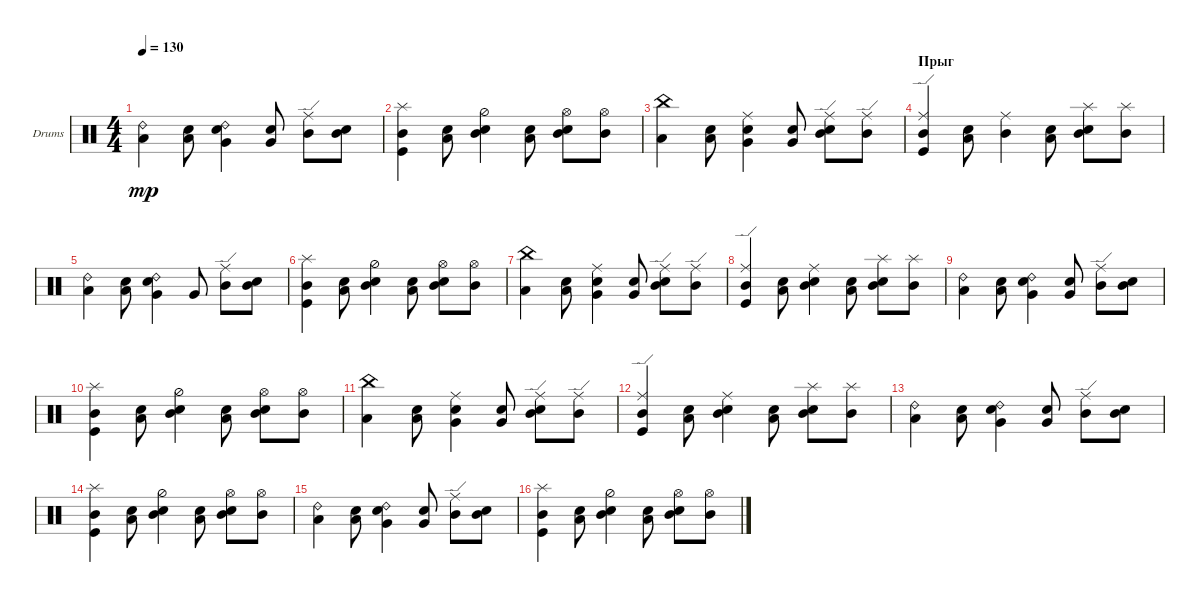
\defaultSystemsLayout 4
\bracketExtendMode groupsimilarinstruments
\firstSystemTrackNameOrientation horizontal
\otherSystemsTrackNameOrientation horizontal
\track ("Drumkit" "Drums") {instrument percussion}
\staff {score}
\articulation defaults
\ts (4 4)
\tempo 130
\clef neutral
\ks c
("Low Tom (hit)" "Ride (bell) 2").4{dy mp} ("Low Tom (hit)" "Snare (hit) 2").8 ("Very Low Tom (hit)" "Snare (hit) 2" "Ride (bell) 2").4 ("Very Low Tom (hit)" "Snare (hit) 2").8 ("Mid Tom (hit)" "Ride (edge)").8 ("Mid Tom (hit)" "Snare (hit) 2").8 |
("Mid Tom (hit)" "Kick (hit)" "Splash (hit)").4 ("Low Tom (hit)" "Snare (hit) 2").8 ("Mid Tom (hit)" "Snare (hit) 2" "Hi-Hat (half)").4 ("Low Tom (hit)" "Snare (hit) 2").8 ("Mid Tom (hit)" "Snare (hit) 2" "Hi-Hat (open)").8 ("Mid Tom (hit)" "Hi-Hat (open)").8 |
("Low Tom (hit)" "China (hit)").4 ("Low Tom (hit)" "Snare (hit) 2").8 ("Very Low Tom (hit)" "Snare (hit) 2" "Ride (middle)").4 ("Very Low Tom (hit)" "Snare (hit) 2").8 ("Mid Tom (hit)" "Snare (hit) 2" "Ride (edge)").8 ("Mid Tom (hit)" "Ride (edge)").8 |
\section ("" "Прыг")
("Mid Tom (hit)" "Kick (hit)" "Ride (edge)").4 ("Low Tom (hit)" "Snare (hit) 2").8 ("Mid Tom (hit)" "Ride (middle)").4 ("Low Tom (hit)" "Snare (hit) 2").8 ("Mid Tom (hit)" "Snare (hit) 2" "Splash (hit)").8 ("Mid Tom (hit)" "Splash (hit)").8 |
("Low Tom (hit)" "Ride (bell) 2").4 ("Low Tom (hit)" "Snare (hit) 2").8 ("Very Low Tom (hit)" "Snare (hit) 2" "Ride (bell) 2").4 "Very Low Tom (hit)".8 ("Mid Tom (hit)" "Ride (edge)").8 ("Mid Tom (hit)" "Snare (hit) 2").8 |
("Mid Tom (hit)" "Kick (hit)" "Splash (hit)").4 ("Low Tom (hit)" "Snare (hit) 2").8 ("Mid Tom (hit)" "Snare (hit) 2" "Hi-Hat (half)").4 ("Low Tom (hit)" "Snare (hit) 2").8 ("Mid Tom (hit)" "Snare (hit) 2" "Hi-Hat (open)").8 ("Mid Tom (hit)" "Hi-Hat (open)").8 |
("Low Tom (hit)" "China (hit)").4 ("Low Tom (hit)" "Snare (hit) 2").8 ("Very Low Tom (hit)" "Snare (hit) 2" "Ride (middle)").4 ("Very Low Tom (hit)" "Snare (hit) 2").8 ("Mid Tom (hit)" "Snare (hit) 2" "Ride (edge)").8 ("Mid Tom (hit)" "Ride (edge)").8 |
("Mid Tom (hit)" "Kick (hit)" "Ride (edge)").4 ("Low Tom (hit)" "Snare (hit) 2").8 ("Mid Tom (hit)" "Snare (hit) 2" "Ride (middle)").4 ("Low Tom (hit)" "Snare (hit) 2").8 ("Mid Tom (hit)" "Snare (hit) 2" "Splash (hit)").8 ("Mid Tom (hit)" "Splash (hit)").8 |
("Low Tom (hit)" "Ride (bell) 2").4 ("Low Tom (hit)" "Snare (hit) 2").8 ("Very Low Tom (hit)" "Snare (hit) 2" "Ride (bell) 2").4 ("Very Low Tom (hit)" "Snare (hit) 2").8 ("Mid Tom (hit)" "Ride (edge)").8 ("Mid Tom (hit)" "Snare (hit) 2").8 |
("Mid Tom (hit)" "Kick (hit)" "Splash (hit)").4 ("Low Tom (hit)" "Snare (hit) 2").8 ("Mid Tom (hit)" "Snare (hit) 2" "Hi-Hat (half)").4 ("Low Tom (hit)" "Snare (hit) 2").8 ("Mid Tom (hit)" "Snare (hit) 2" "Hi-Hat (open)").8 ("Mid Tom (hit)" "Hi-Hat (open)").8 |
("Low Tom (hit)" "China (hit)").4 ("Low Tom (hit)" "Snare (hit) 2").8 ("Very Low Tom (hit)" "Snare (hit) 2" "Ride (middle)").4 ("Very Low Tom (hit)" "Snare (hit) 2").8 ("Mid Tom (hit)" "Snare (hit) 2" "Ride (edge)").8 ("Mid Tom (hit)" "Ride (edge)").8 |
("Mid Tom (hit)" "Kick (hit)" "Ride (edge)").4 ("Low Tom (hit)" "Snare (hit) 2").8 ("Mid Tom (hit)" "Snare (hit) 2" "Ride (middle)").4 ("Low Tom (hit)" "Snare (hit) 2").8 ("Mid Tom (hit)" "Snare (hit) 2" "Splash (hit)").8 ("Mid Tom (hit)" "Splash (hit)").8 |
("Low Tom (hit)" "Ride (bell) 2").4 ("Low Tom (hit)" "Snare (hit) 2").8 ("Very Low Tom (hit)" "Snare (hit) 2" "Ride (bell) 2").4 ("Very Low Tom (hit)" "Snare (hit) 2").8 ("Mid Tom (hit)" "Ride (edge)").8 ("Mid Tom (hit)" "Snare (hit) 2").8 |
("Mid Tom (hit)" "Kick (hit)" "Splash (hit)").4 ("Low Tom (hit)" "Snare (hit) 2").8 ("Mid Tom (hit)" "Snare (hit) 2" "Hi-Hat (half)").4 ("Low Tom (hit)" "Snare (hit) 2").8 ("Mid Tom (hit)" "Snare (hit) 2" "Hi-Hat (open)").8 ("Mid Tom (hit)" "Hi-Hat (open)").8 |
("Low Tom (hit)" "Ride (bell) 2").4 ("Low Tom (hit)" "Snare (hit) 2").8 ("Very Low Tom (hit)" "Snare (hit) 2" "Ride (bell) 2").4 ("Very Low Tom (hit)" "Snare (hit) 2").8 ("Mid Tom (hit)" "Ride (edge)").8 ("Mid Tom (hit)" "Snare (hit) 2").8 |
("Mid Tom (hit)" "Kick (hit)" "Splash (hit)").4 ("Low Tom (hit)" "Snare (hit) 2").8 ("Mid Tom (hit)" "Snare (hit) 2" "Hi-Hat (half)").4 ("Low Tom (hit)" "Snare (hit) 2").8 ("Mid Tom (hit)" "Snare (hit) 2" "Hi-Hat (open)").8 ("Mid Tom (hit)" "Hi-Hat (open)").8
